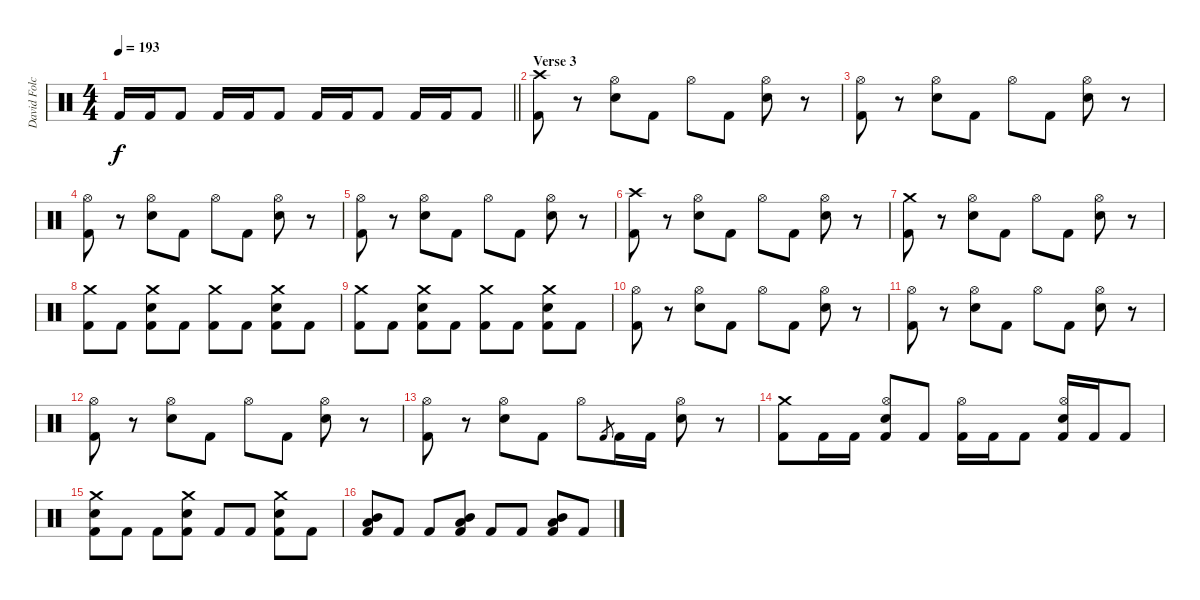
\track ("David Folchitto (Drums)" "David Folc") {instrument percussion}
\staff {score}
\articulation defaults
\ts (4 4)
\tempo 193
\clef neutral
\barLineRight lightlight
\ks c "Kick (hit) 2".16{dy f} "Kick (hit) 2".16 "Kick (hit) 2".8 "Kick (hit) 2".16 "Kick (hit) 2".16 "Kick (hit) 2".8 "Kick (hit) 2".16 "Kick (hit) 2".16 "Kick (hit) 2".8 "Kick (hit) 2".16 "Kick (hit) 2".16 "Kick (hit) 2".8
|
\section ("" "Verse 3")
("Crash high (hit)" "Kick (hit) 2").8 r.8 ("Hi-Hat (open)" "Snare (hit) 2").8 "Kick (hit) 2".8 "Hi-Hat (open)".8 "Kick (hit) 2".8 ("Hi-Hat (open)" "Snare (hit) 2").8 r.8 |
("Hi-Hat (open)" "Kick (hit) 2").8 r.8 ("Hi-Hat (open)" "Snare (hit) 2").8 "Kick (hit) 2".8 "Hi-Hat (open)".8 "Kick (hit) 2".8 ("Hi-Hat (open)" "Snare (hit) 2").8 r.8 |
("Hi-Hat (open)" "Kick (hit) 2").8 r.8 ("Hi-Hat (open)" "Snare (hit) 2").8 "Kick (hit) 2".8 "Hi-Hat (open)".8 "Kick (hit) 2".8 ("Hi-Hat (open)" "Snare (hit) 2").8 r.8 |
("Hi-Hat (open)" "Kick (hit) 2").8 r.8 ("Hi-Hat (open)" "Snare (hit) 2").8 "Kick (hit) 2".8 "Hi-Hat (open)".8 "Kick (hit) 2".8 ("Hi-Hat (open)" "Snare (hit) 2").8 r.8 |
("Crash high (hit)" "Kick (hit) 2").8 r.8 ("Hi-Hat (open)" "Snare (hit) 2").8 "Kick (hit) 2".8 "Hi-Hat (open)".8 "Kick (hit) 2".8 ("Hi-Hat (open)" "Snare (hit) 2").8 r.8 |
("Crash medium (hit)" "Kick (hit) 2").8 r.8 ("Hi-Hat (open)" "Snare (hit) 2").8 "Kick (hit) 2".8 "Hi-Hat (open)".8 "Kick (hit) 2".8 ("Hi-Hat (open)" "Snare (hit) 2").8 r.8 |
("Crash medium (hit)" "Kick (hit) 2").8 "Kick (hit) 2".8 ("Crash medium (hit)" "Snare (hit) 2" "Kick (hit) 2").8 "Kick (hit) 2".8 ("Crash medium (hit)" "Kick (hit) 2").8 "Kick (hit) 2".8 ("Crash medium (hit)" "Snare (hit) 2" "Kick (hit) 2").8 "Kick (hit) 2".8 |
("Crash medium (hit)" "Kick (hit) 2").8 "Kick (hit) 2".8 ("Crash medium (hit)" "Snare (hit) 2" "Kick (hit) 2").8 "Kick (hit) 2".8 ("Crash medium (hit)" "Kick (hit) 2").8 "Kick (hit) 2".8 ("Crash medium (hit)" "Snare (hit) 2" "Kick (hit) 2").8 "Kick (hit) 2".8 |
("Hi-Hat (open)" "Kick (hit) 2").8 r.8 ("Hi-Hat (open)" "Snare (hit) 2").8 "Kick (hit) 2".8 "Hi-Hat (open)".8 "Kick (hit) 2".8 ("Hi-Hat (open)" "Snare (hit) 2").8 r.8 |
("Hi-Hat (open)" "Kick (hit) 2").8 r.8 ("Hi-Hat (open)" "Snare (hit) 2").8 "Kick (hit) 2".8 "Hi-Hat (open)".8 "Kick (hit) 2".8 ("Hi-Hat (open)" "Snare (hit) 2").8 r.8 |
("Hi-Hat (open)" "Kick (hit) 2").8 r.8 ("Hi-Hat (open)" "Snare (hit) 2").8 "Kick (hit) 2".8 "Hi-Hat (open)".8 "Kick (hit) 2".8 ("Hi-Hat (open)" "Snare (hit) 2").8 r.8 |
("Hi-Hat (open)" "Kick (hit) 2").8 r.8 ("Hi-Hat (open)" "Snare (hit) 2").8 "Kick (hit) 2".8 "Hi-Hat (open)".8 "Kick (hit) 2".8{gr} "Kick (hit) 2".16 "Kick (hit) 2".16 ("Hi-Hat (open)" "Snare (hit) 2").8 r.8 |
("Crash medium (hit)" "Kick (hit) 2").8 "Kick (hit) 2".16 "Kick (hit) 2".16 ("Hi-Hat (open)" "Snare (hit) 2" "Kick (hit) 2").8 "Kick (hit) 2".8 ("Hi-Hat (open)" "Kick (hit) 2").16 "Kick (hit) 2".16 "Kick (hit) 2".8 ("Hi-Hat (open)" "Snare (hit) 2" "Kick (hit) 2").16 "Kick (hit) 2".16 "Kick (hit) 2".8 |
("Crash medium (hit)" "Snare (hit) 2" "Kick (hit) 2").8 "Kick (hit) 2".8 "Kick (hit) 2".8 ("Crash medium (hit)" "Snare (hit) 2" "Kick (hit) 2").8 "Kick (hit) 2".8 "Kick (hit) 2".8 ("Crash medium (hit)" "Snare (hit) 2" "Kick (hit) 2").8 "Kick (hit) 2".8 |
("Mid Tom (hit)" "Low Tom (hit)" "Kick (hit) 2").8 "Kick (hit) 2".8 "Kick (hit) 2".8 ("Mid Tom (hit)" "Low Tom (hit)" "Kick (hit) 2").8 "Kick (hit) 2".8 "Kick (hit) 2".8 ("Mid Tom (hit)" "Low Tom (hit)" "Kick (hit) 2").8 "Kick (hit) 2".8
